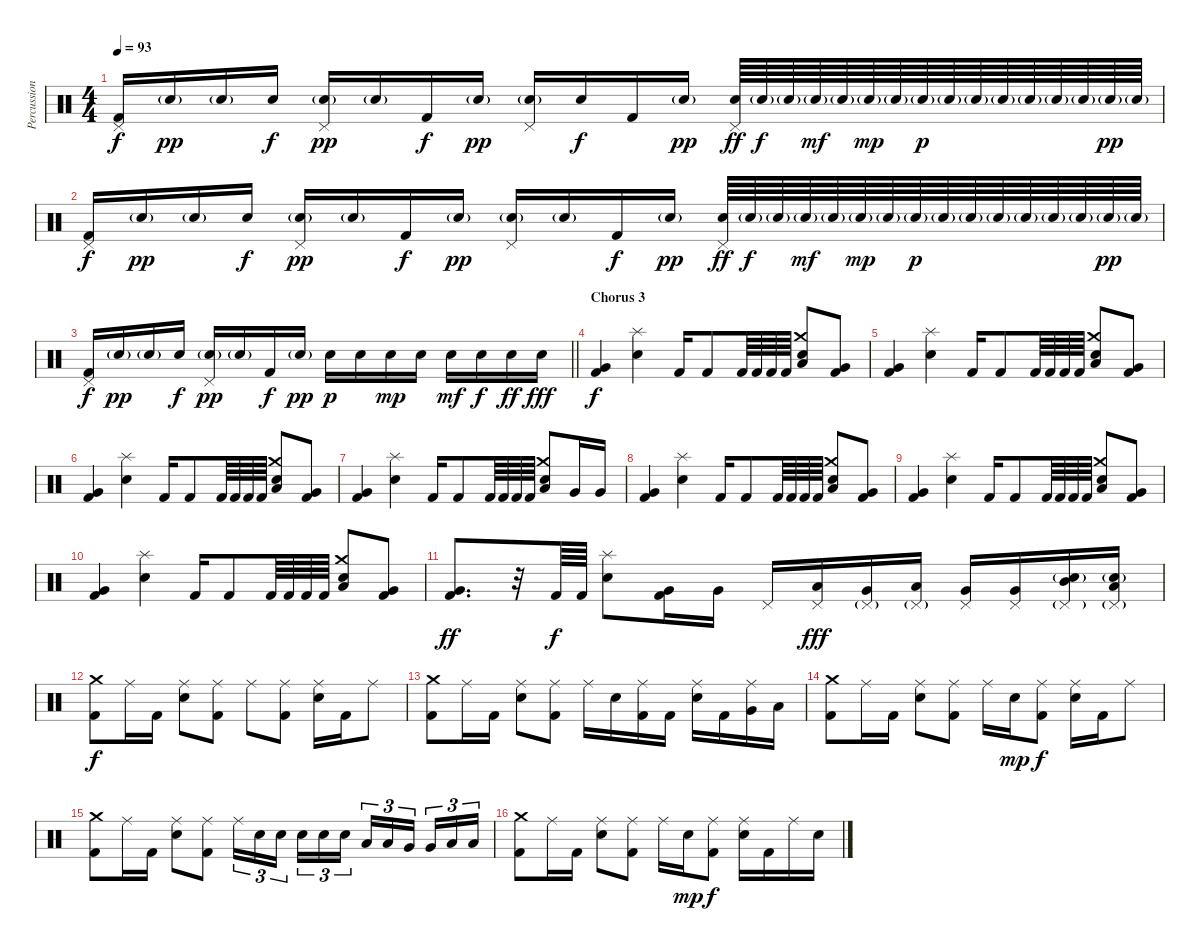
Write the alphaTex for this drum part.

\track ("Percussion" "Percussion") {instrument percussion}
\staff {score}
\articulation defaults
\ts (4 4)
\tempo 93
\clef neutral
\ks c
("Pedal Hi-Hat (hit)" "Kick (hit) 2").16{dy f} "Snare (hit) 2"{g}.16{dy pp} "Snare (hit) 2"{g}.16 "Snare (hit) 2".16{dy f} ("Snare (hit) 2"{g} "Pedal Hi-Hat (hit)").16{dy pp} "Snare (hit) 2"{g}.16 "Kick (hit) 2".16{dy f} "Snare (hit) 2"{g}.16{dy pp} ("Snare (hit) 2"{g} "Pedal Hi-Hat (hit)").16 "Snare (hit) 2".16{dy f} "Kick (hit) 2".16 "Snare (hit) 2"{g}.16{dy pp} ("Snare (hit) 2" "Pedal Hi-Hat (hit)").64{dy ff} "Snare (hit) 2"{g}.64{dy f} "Snare (hit) 2"{g}.64 "Snare (hit) 2"{g}.64{dy mf} "Snare (hit) 2"{g}.64 "Snare (hit) 2"{g}.64{dy mp} "Snare (hit) 2"{g}.64 "Snare (hit) 2"{g}.64{dy p} "Snare (hit) 2"{g}.64 "Snare (hit) 2"{g}.64 "Snare (hit) 2"{g}.64 "Snare (hit) 2"{g}.64 "Snare (hit) 2"{g}.64 "Snare (hit) 2"{g}.64 "Snare (hit) 2"{g}.64{dy pp} "Snare (hit) 2"{g}.64 |
("Pedal Hi-Hat (hit)" "Kick (hit) 2").16{dy f} "Snare (hit) 2"{g}.16{dy pp} "Snare (hit) 2"{g}.16 "Snare (hit) 2".16{dy f} ("Snare (hit) 2"{g} "Pedal Hi-Hat (hit)").16{dy pp} "Snare (hit) 2"{g}.16 "Kick (hit) 2".16{dy f} "Snare (hit) 2"{g}.16{dy pp} ("Snare (hit) 2"{g} "Pedal Hi-Hat (hit)").16 "Snare (hit) 2"{g}.16 "Kick (hit) 2".16{dy f} "Snare (hit) 2"{g}.16{dy pp} ("Snare (hit) 2" "Pedal Hi-Hat (hit)").64{dy ff} "Snare (hit) 2"{g}.64{dy f} "Snare (hit) 2"{g}.64 "Snare (hit) 2"{g}.64{dy mf} "Snare (hit) 2"{g}.64 "Snare (hit) 2"{g}.64{dy mp} "Snare (hit) 2"{g}.64 "Snare (hit) 2"{g}.64{dy p} "Snare (hit) 2"{g}.64 "Snare (hit) 2"{g}.64 "Snare (hit) 2"{g}.64 "Snare (hit) 2"{g}.64 "Snare (hit) 2"{g}.64 "Snare (hit) 2"{g}.64 "Snare (hit) 2"{g}.64{dy pp} "Snare (hit) 2"{g}.64 |
\barLineRight lightlight
("Pedal Hi-Hat (hit)" "Kick (hit) 2").16{dy f} "Snare (hit) 2"{g}.16{dy pp} "Snare (hit) 2"{g}.16 "Snare (hit) 2".16{dy f} ("Snare (hit) 2"{g} "Pedal Hi-Hat (hit)").16{dy pp} "Snare (hit) 2"{g}.16 "Kick (hit) 2".16{dy f} "Snare (hit) 2"{g}.16{dy pp} "Snare (hit) 2".16{dy p} "Snare (hit) 2".16 "Snare (hit) 2".16{dy mp} "Snare (hit) 2".16 "Snare (hit) 2".16{dy mf} "Snare (hit) 2".16{dy f} "Snare (hit) 2".16{dy ff} "Snare (hit) 2".16{dy fff} |
\section ("" "Chorus 3")
("Very Low Tom (hit)" "Kick (hit) 2").4{dy f} ("Splash (hit)" "Snare (hit) 2").4 "Kick (hit) 2".16 "Kick (hit) 2".8 "Kick (hit) 2".64 "Kick (hit) 2".64 "Kick (hit) 2".64 "Kick (hit) 2".64 ("Crash medium (hit)" "Snare (hit) 2" "Low Tom (hit)").8 ("Very Low Tom (hit)" "Kick (hit) 2").8 |
("Very Low Tom (hit)" "Kick (hit) 2").4 ("Splash (hit)" "Snare (hit) 2").4 "Kick (hit) 2".16 "Kick (hit) 2".8 "Kick (hit) 2".64 "Kick (hit) 2".64 "Kick (hit) 2".64 "Kick (hit) 2".64 ("Crash medium (hit)" "Snare (hit) 2" "Low Tom (hit)").8 ("Very Low Tom (hit)" "Kick (hit) 2").8 |
("Very Low Tom (hit)" "Kick (hit) 2").4 ("Splash (hit)" "Snare (hit) 2").4 "Kick (hit) 2".16 "Kick (hit) 2".8 "Kick (hit) 2".64 "Kick (hit) 2".64 "Kick (hit) 2".64 "Kick (hit) 2".64 ("Crash medium (hit)" "Snare (hit) 2" "Low Tom (hit)").8 ("Very Low Tom (hit)" "Kick (hit) 2").8 |
("Very Low Tom (hit)" "Kick (hit) 2").4 ("Splash (hit)" "Snare (hit) 2").4 "Kick (hit) 2".16 "Kick (hit) 2".8 "Kick (hit) 2".64 "Kick (hit) 2".64 "Kick (hit) 2".64 "Kick (hit) 2".64 ("Crash medium (hit)" "Snare (hit) 2" "Low Tom (hit)").8 "Very Low Tom (hit)".16 "Very Low Tom (hit)".16 |
("Very Low Tom (hit)" "Kick (hit) 2").4 ("Splash (hit)" "Snare (hit) 2").4 "Kick (hit) 2".16 "Kick (hit) 2".8 "Kick (hit) 2".64 "Kick (hit) 2".64 "Kick (hit) 2".64 "Kick (hit) 2".64 ("Crash medium (hit)" "Snare (hit) 2" "Low Tom (hit)").8 ("Very Low Tom (hit)" "Kick (hit) 2").8 |
("Very Low Tom (hit)" "Kick (hit) 2").4 ("Splash (hit)" "Snare (hit) 2").4 "Kick (hit) 2".16 "Kick (hit) 2".8 "Kick (hit) 2".64 "Kick (hit) 2".64 "Kick (hit) 2".64 "Kick (hit) 2".64 ("Crash medium (hit)" "Snare (hit) 2" "Low Tom (hit)").8 ("Very Low Tom (hit)" "Kick (hit) 2").8 |
("Very Low Tom (hit)" "Kick (hit) 2").4 ("Splash (hit)" "Snare (hit) 2").4 "Kick (hit) 2".16 "Kick (hit) 2".8 "Kick (hit) 2".64 "Kick (hit) 2".64 "Kick (hit) 2".64 "Kick (hit) 2".64 ("Crash medium (hit)" "Snare (hit) 2" "Low Tom (hit)").8 ("Very Low Tom (hit)" "Kick (hit) 2").8 |
("Very Low Tom (hit)" "Kick (hit) 2").8{d dy ff} r.32 "Kick (hit) 2".64{dy f} "Kick (hit) 2".64 ("Splash (hit)" "Snare (hit) 2").8 ("Very Low Tom (hit)" "Kick (hit) 2").16 "Very Low Tom (hit)".16 "Pedal Hi-Hat (hit)".16 ("Pedal Hi-Hat (hit)" "Low Tom (hit)").16{dy fff} ("Pedal Hi-Hat (hit)"{g} "Very Low Tom (hit)").16 ("Pedal Hi-Hat (hit)"{g} "Low Tom (hit)").16 ("Pedal Hi-Hat (hit)" "Very Low Tom (hit)").16 ("Pedal Hi-Hat (hit)" "Very Low Tom (hit)").16 ("Pedal Hi-Hat (hit)"{g} "Snare (hit) 2"{g} "Mid Tom (hit)").16 ("Pedal Hi-Hat (hit)"{g} "Snare (hit) 2"{g} "Low Tom (hit)").16 |
("Crash medium (hit)" "Kick (hit) 2").8{dy f} "Ride (middle)".16 "Kick (hit) 2".16 ("Ride (middle)" "Snare (hit) 2").8 ("Ride (middle)" "Kick (hit) 2").8 "Ride (middle)".8 ("Ride (middle)" "Kick (hit) 2").8 ("Ride (middle)" "Snare (hit) 2").16 "Kick (hit) 2".16 "Ride (middle)".8 |
("Crash medium (hit)" "Kick (hit) 2").8 "Ride (middle)".16 "Kick (hit) 2".16 ("Ride (middle)" "Snare (hit) 2").8 ("Ride (middle)" "Kick (hit) 2").8 "Ride (middle)".16 "Snare (hit) 2".16 ("Ride (middle)" "Kick (hit) 2").16 "Kick (hit) 2".16 ("Ride (middle)" "Snare (hit) 2").16 "Kick (hit) 2".16 ("Ride (middle)" "Very Low Tom (hit)").16 "Low Tom (hit)".16 |
("Crash medium (hit)" "Kick (hit) 2").8 "Ride (middle)".16 "Kick (hit) 2".16 ("Ride (middle)" "Snare (hit) 2").8 ("Ride (middle)" "Kick (hit) 2").8 "Ride (middle)".16 "Snare (hit) 2".16{dy mp} ("Ride (middle)" "Kick (hit) 2").8{dy f} ("Ride (middle)" "Snare (hit) 2").16 "Kick (hit) 2".16 "Ride (middle)".8 |
("Crash medium (hit)" "Kick (hit) 2").8 "Ride (middle)".16 "Kick (hit) 2".16 ("Ride (middle)" "Snare (hit) 2").8 ("Ride (middle)" "Kick (hit) 2").8 "Ride (middle)".16{tu (3 2)} "Snare (hit) 2".16{tu (3 2)} "Snare (hit) 2".16{tu (3 2) beam splitsecondary} "Snare (hit) 2".16{tu (3 2)} "Snare (hit) 2".16{tu (3 2)} "Snare (hit) 2".16{tu (3 2)} "Low Tom (hit)".16{tu (3 2)} "Low Tom (hit)".16{tu (3 2)} "Very Low Tom (hit)".16{tu (3 2) beam splitsecondary} "Very Low Tom (hit)".16{tu (3 2)} "Low Floor Tom (hit)".16{tu (3 2)} "Low Floor Tom (hit)".16{tu (3 2)} |
("Crash medium (hit)" "Kick (hit) 2").8 "Ride (middle)".16 "Kick (hit) 2".16 ("Ride (middle)" "Snare (hit) 2").8 ("Ride (middle)" "Kick (hit) 2").8 "Ride (middle)".16 "Snare (hit) 2".16{dy mp} ("Ride (middle)" "Kick (hit) 2").8{dy f} ("Ride (middle)" "Snare (hit) 2").16 "Kick (hit) 2".16 "Ride (middle)".16 "Snare (hit) 2".16
